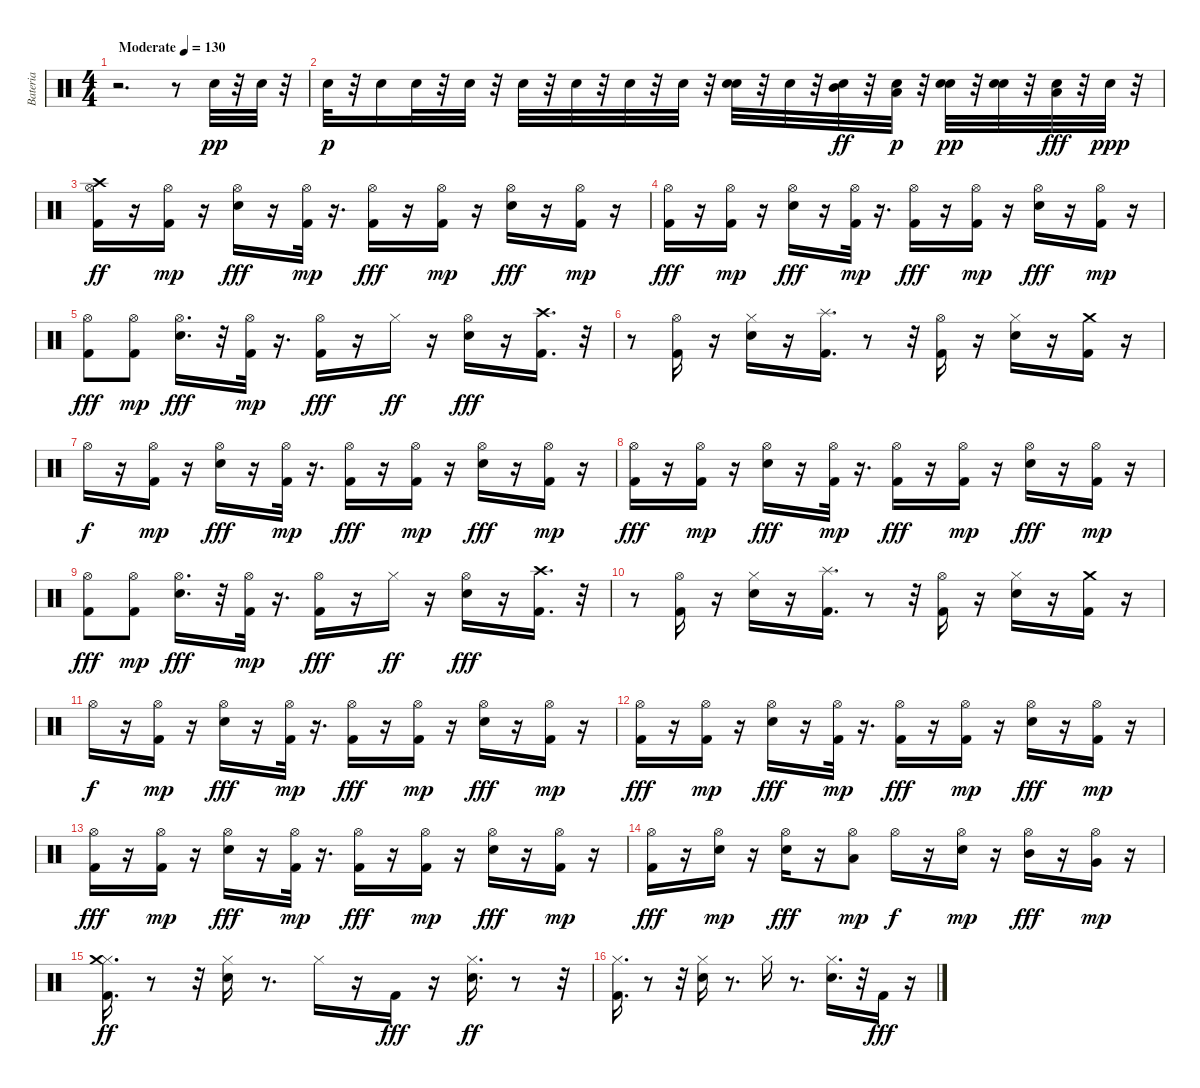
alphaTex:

\track ("Bateria" "Bateria") {instrument percussion}
\staff {score}
\articulation defaults
\ts (4 4)
\tempo (130 "Moderate")
\clef neutral
\ks c
r.2{d dy pp} r.8 "Electric Snare (hit)".32 r.32 "Electric Snare (hit)".32 r.32 |
"Electric Snare (hit)".32{dy p} r.32 "Electric Snare (hit)".16 "Electric Snare (hit)".32 r.32 "Electric Snare (hit)".32 r.32 "Electric Snare (hit)".32 r.32 "Electric Snare (hit)".32 r.32 "Electric Snare (hit)".32 r.32 "Electric Snare (hit)".32 r.32 ("Electric Snare (hit)" "Electric Snare (hit)").32 r.32 "Electric Snare (hit)".32 r.32 ("Electric Snare (hit)" "Mid Tom (hit)").32{dy ff} r.32 ("Electric Snare (hit)" "Low Tom (hit)").32{dy p} r.32 ("Electric Snare (hit)" "Electric Snare (hit)").32{dy pp} r.32 ("Electric Snare (hit)" "Electric Snare (hit)").32 r.32 ("Electric Snare (hit)" "Low Tom (hit)").32{dy fff} r.32 "Electric Snare (hit)".32{dy ppp} r.32 |
("Kick (hit) 2" "Hi-Hat (open)" "Crash high (hit)").16{dy ff} r.16 ("Kick (hit) 2" "Hi-Hat (open)").16{dy mp} r.16 ("Electric Snare (hit)" "Hi-Hat (open)").16{dy fff} r.16 ("Kick (hit) 2" "Hi-Hat (open)").32{dy mp} r.16{d} ("Kick (hit) 2" "Hi-Hat (open)").16{dy fff} r.16 ("Kick (hit) 2" "Hi-Hat (open)").16{dy mp} r.16 ("Electric Snare (hit)" "Hi-Hat (open)").16{dy fff} r.16 ("Kick (hit) 2" "Hi-Hat (open)").16{dy mp} r.16 |
("Kick (hit) 2" "Hi-Hat (open)").16{dy fff} r.16 ("Kick (hit) 2" "Hi-Hat (open)").16{dy mp} r.16 ("Electric Snare (hit)" "Hi-Hat (open)").16{dy fff} r.16 ("Kick (hit) 2" "Hi-Hat (open)").32{dy mp} r.16{d} ("Kick (hit) 2" "Hi-Hat (open)").16{dy fff} r.16 ("Kick (hit) 2" "Hi-Hat (open)").16{dy mp} r.16 ("Electric Snare (hit)" "Hi-Hat (open)").16{dy fff} r.16 ("Kick (hit) 2" "Hi-Hat (open)").16{dy mp} r.16 |
("Kick (hit) 2" "Hi-Hat (open)").8{dy fff} ("Kick (hit) 2" "Hi-Hat (open)").8{dy mp} ("Electric Snare (hit)" "Hi-Hat (open)").16{d dy fff} r.32 ("Kick (hit) 2" "Hi-Hat (open)").32{dy mp} r.16{d} ("Kick (hit) 2" "Hi-Hat (open)").16{dy fff} r.16 "Hi-Hat (closed)".16{dy ff} r.16 ("Electric Snare (hit)" "Hi-Hat (open)").16{dy fff} r.16 ("Kick (hit) 2" "Crash high (hit)").16{d} r.32 |
r.8 ("Kick (hit) 2" "Hi-Hat (open)").16 r.16 ("Electric Snare (hit)" "Hi-Hat (closed)").16 r.16 ("Kick (hit) 2" "Splash (hit)").16{d} r.8 r.32 ("Kick (hit) 2" "Hi-Hat (open)").16 r.16 ("Electric Snare (hit)" "Hi-Hat (closed)").16 r.16 ("Kick (hit) 2" "Crash medium (hit)").16 r.16 |
"Hi-Hat (open)".16{dy f} r.16 ("Kick (hit) 2" "Hi-Hat (open)").16{dy mp} r.16 ("Electric Snare (hit)" "Hi-Hat (open)").16{dy fff} r.16 ("Kick (hit) 2" "Hi-Hat (open)").32{dy mp} r.16{d} ("Kick (hit) 2" "Hi-Hat (open)").16{dy fff} r.16 ("Kick (hit) 2" "Hi-Hat (open)").16{dy mp} r.16 ("Electric Snare (hit)" "Hi-Hat (open)").16{dy fff} r.16 ("Kick (hit) 2" "Hi-Hat (open)").16{dy mp} r.16 |
("Kick (hit) 2" "Hi-Hat (open)").16{dy fff} r.16 ("Kick (hit) 2" "Hi-Hat (open)").16{dy mp} r.16 ("Electric Snare (hit)" "Hi-Hat (open)").16{dy fff} r.16 ("Kick (hit) 2" "Hi-Hat (open)").32{dy mp} r.16{d} ("Kick (hit) 2" "Hi-Hat (open)").16{dy fff} r.16 ("Kick (hit) 2" "Hi-Hat (open)").16{dy mp} r.16 ("Electric Snare (hit)" "Hi-Hat (open)").16{dy fff} r.16 ("Kick (hit) 2" "Hi-Hat (open)").16{dy mp} r.16 |
("Kick (hit) 2" "Hi-Hat (open)").8{dy fff} ("Kick (hit) 2" "Hi-Hat (open)").8{dy mp} ("Electric Snare (hit)" "Hi-Hat (open)").16{d dy fff} r.32 ("Kick (hit) 2" "Hi-Hat (open)").32{dy mp} r.16{d} ("Kick (hit) 2" "Hi-Hat (open)").16{dy fff} r.16 "Hi-Hat (closed)".16{dy ff} r.16 ("Electric Snare (hit)" "Hi-Hat (open)").16{dy fff} r.16 ("Kick (hit) 2" "Crash high (hit)").16{d} r.32 |
r.8 ("Kick (hit) 2" "Hi-Hat (open)").16 r.16 ("Electric Snare (hit)" "Hi-Hat (closed)").16 r.16 ("Kick (hit) 2" "Splash (hit)").16{d} r.8 r.32 ("Kick (hit) 2" "Hi-Hat (open)").16 r.16 ("Electric Snare (hit)" "Hi-Hat (closed)").16 r.16 ("Kick (hit) 2" "Crash medium (hit)").16 r.16 |
"Hi-Hat (open)".16{dy f} r.16 ("Kick (hit) 2" "Hi-Hat (open)").16{dy mp} r.16 ("Electric Snare (hit)" "Hi-Hat (open)").16{dy fff} r.16 ("Kick (hit) 2" "Hi-Hat (open)").32{dy mp} r.16{d} ("Kick (hit) 2" "Hi-Hat (open)").16{dy fff} r.16 ("Kick (hit) 2" "Hi-Hat (open)").16{dy mp} r.16 ("Electric Snare (hit)" "Hi-Hat (open)").16{dy fff} r.16 ("Kick (hit) 2" "Hi-Hat (open)").16{dy mp} r.16 |
("Kick (hit) 2" "Hi-Hat (open)").16{dy fff} r.16 ("Kick (hit) 2" "Hi-Hat (open)").16{dy mp} r.16 ("Electric Snare (hit)" "Hi-Hat (open)").16{dy fff} r.16 ("Kick (hit) 2" "Hi-Hat (open)").32{dy mp} r.16{d} ("Kick (hit) 2" "Hi-Hat (open)").16{dy fff} r.16 ("Kick (hit) 2" "Hi-Hat (open)").16{dy mp} r.16 ("Electric Snare (hit)" "Hi-Hat (open)").16{dy fff} r.16 ("Kick (hit) 2" "Hi-Hat (open)").16{dy mp} r.16 |
("Kick (hit) 2" "Hi-Hat (open)").16{dy fff} r.16 ("Kick (hit) 2" "Hi-Hat (open)").16{dy mp} r.16 ("Electric Snare (hit)" "Hi-Hat (open)").16{dy fff} r.16 ("Kick (hit) 2" "Hi-Hat (open)").32{dy mp} r.16{d} ("Kick (hit) 2" "Hi-Hat (open)").16{dy fff} r.16 ("Kick (hit) 2" "Hi-Hat (open)").16{dy mp} r.16 ("Electric Snare (hit)" "Hi-Hat (open)").16{dy fff} r.16 ("Kick (hit) 2" "Hi-Hat (open)").16{dy mp} r.16 |
("Kick (hit) 2" "Hi-Hat (open)").16{dy fff} r.16 ("Electric Snare (hit)" "Hi-Hat (open)").16{dy mp} r.16 ("Electric Snare (hit)" "Hi-Hat (open)").16{dy fff} r.16 ("Low Tom (hit)" "Hi-Hat (open)").8{dy mp} "Hi-Hat (open)".16{dy f} r.16 ("Electric Snare (hit)" "Hi-Hat (open)").16{dy mp} r.16 ("Hi-Hat (open)" "Mid Tom (hit)").16{dy fff} r.16 ("Very Low Tom (hit)" "Hi-Hat (open)").16{dy mp} r.16 |
("Kick (hit) 2" "Hi-Hat (closed)" "Crash medium (hit)").16{d dy ff} r.8 r.32 ("Electric Snare (hit)" "Hi-Hat (closed)").16 r.8{d} "Hi-Hat (closed)".16 r.16 "Kick (hit) 2".16{dy fff} r.16 ("Electric Snare (hit)" "Hi-Hat (closed)").16{d dy ff} r.8 r.32 |
("Kick (hit) 2" "Hi-Hat (closed)").16{d} r.8 r.32 ("Electric Snare (hit)" "Hi-Hat (closed)").16 r.8{d} "Hi-Hat (closed)".16 r.8{d} ("Electric Snare (hit)" "Hi-Hat (closed)").16{d} r.32 "Kick (hit) 2".16{dy fff} r.16
